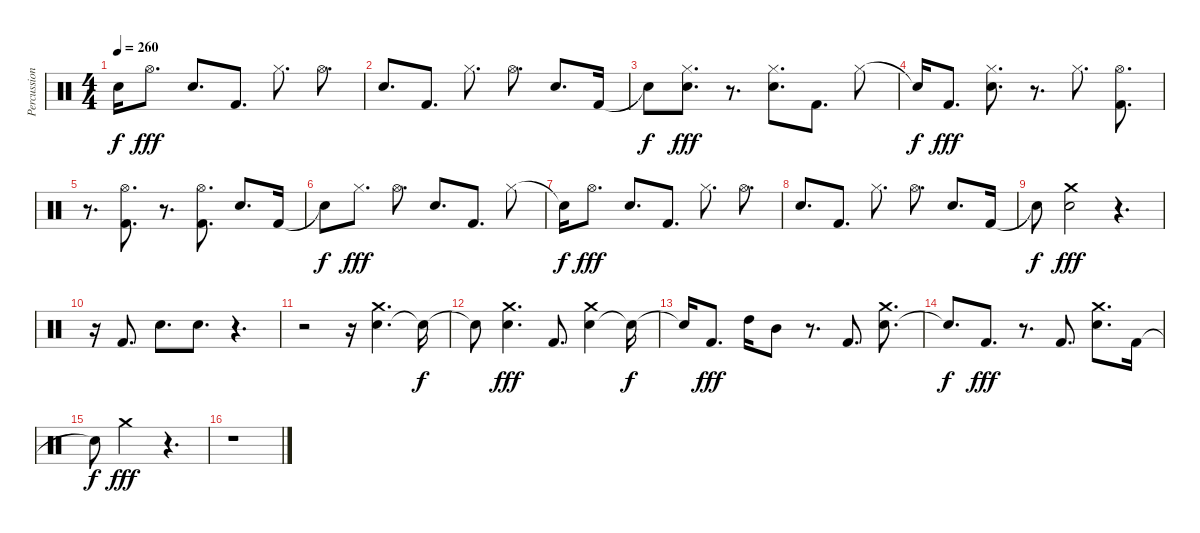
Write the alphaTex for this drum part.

\track ("Percussion" "Percussion") {instrument percussion}
\staff {score}
\articulation defaults
\ts (4 4)
\tempo 260
\clef neutral
\ks c "Snare (hit)"{t}.16{dy f} "Hi-Hat (open)".8{d dy fff} "Electric Snare (hit)".8{d} "Kick (hit) 2".8{d} "Hi-Hat (closed)".8{d} "Hi-Hat (open)".8{d}
|
"Electric Snare (hit)".8{d} "Kick (hit) 2".8{d} "Hi-Hat (closed)".8{d} "Hi-Hat (open)".8{d} "Electric Snare (hit)".8{d} "Kick (hit) 2".16 |
"Snare (hit)"{t}.8{dy f} ("Hi-Hat (closed)" "Electric Snare (hit)").8{d dy fff} r.8{d} ("Electric Snare (hit)" "Hi-Hat (closed)").8{d} "Kick (hit) 2".8{d} "Hi-Hat (closed)".8 |
"Snare (hit)"{t}.16{dy f} "Kick (hit) 2".8{d dy fff} ("Electric Snare (hit)" "Hi-Hat (closed)").8{d} r.8{d} "Hi-Hat (closed)".8{d} ("Hi-Hat (open)" "Kick (hit) 2").8{d} |
r.8{d} ("Hi-Hat (open)" "Kick (hit) 2").8{d} r.8{d} ("Hi-Hat (open)" "Kick (hit) 2").8{d} "Electric Snare (hit)".8{d} "Kick (hit) 2".16 |
"Snare (hit)"{t}.8{dy f} "Hi-Hat (closed)".8{d dy fff} "Hi-Hat (open)".8{d} "Electric Snare (hit)".8{d} "Kick (hit) 2".8{d} "Hi-Hat (closed)".8 |
"Snare (hit)"{t}.16{dy f} "Hi-Hat (open)".8{d dy fff} "Electric Snare (hit)".8{d} "Kick (hit) 2".8{d} "Hi-Hat (closed)".8{d} "Hi-Hat (open)".8{d} |
"Electric Snare (hit)".8{d} "Kick (hit) 2".8{d} "Hi-Hat (closed)".8{d} "Hi-Hat (open)".8{d} "Electric Snare (hit)".8{d} "Kick (hit) 2".16 |
"Snare (hit)"{t}.8{dy f} ("Electric Snare (hit)" "Crash medium (hit)").2{dy fff} r.4{d} |
r.16 "Kick (hit) 2".8{d} "Electric Snare (hit)".8{d} "Electric Snare (hit)".8{d} r.4{d} |
r.2 r.16 ("Electric Snare (hit)" "Crash medium (hit)").4{d} "Snare (hit)"{t}.16{dy f} |
"Snare (hit)"{t}.8 ("Electric Snare (hit)" "Crash medium (hit)").4{d dy fff} "Kick (hit) 2".8{d} ("Electric Snare (hit)" "Crash medium (hit)").4 "Snare (hit)"{t}.16{dy f} |
"Snare (hit)"{t}.16 "Kick (hit) 2".8{d dy fff} "High Tom (hit)".16 "Mid Tom (hit)".8 r.8{d} "Kick (hit) 2".8{d} ("Electric Snare (hit)" "Crash medium (hit)").8{d} |
"Snare (hit)"{t}.8{d dy f} "Kick (hit) 2".8{d dy fff} r.8{d} "Kick (hit) 2".8{d} ("Electric Snare (hit)" "Crash medium (hit)").8{d} "Kick (hit) 2".16 |
"Snare (hit)"{t}.8{dy f} "Crash medium (hit)".2{dy fff} r.4{d} |
r.1
